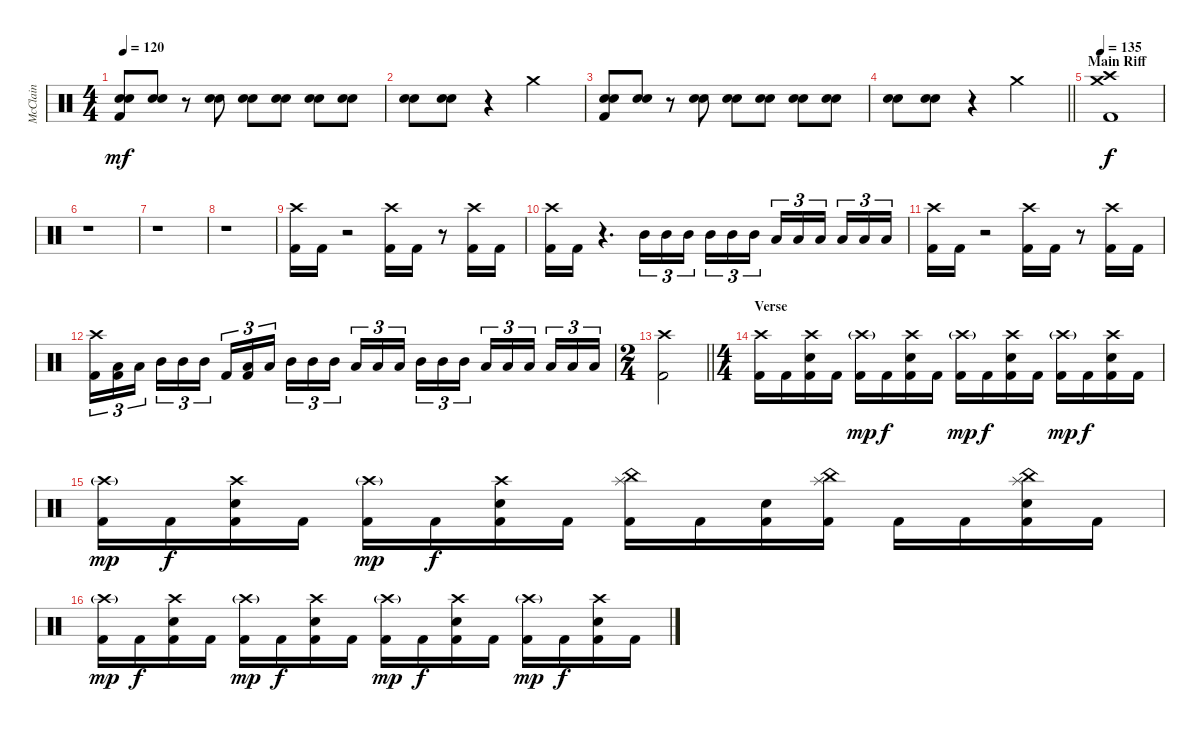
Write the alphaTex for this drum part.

\track ("McClain" "McClain") {instrument percussion}
\staff {score}
\articulation defaults
\ts (4 4)
\tempo 120
\clef neutral
\ks c
("Snare (hit) 2" "Electric Snare (hit)" "Kick (hit) 2").8{dy mf} ("Snare (hit) 2" "Electric Snare (hit)").8 r.8 ("Snare (hit) 2" "Electric Snare (hit)").8 ("Snare (hit) 2" "Electric Snare (hit)").8 ("Snare (hit) 2" "Electric Snare (hit)").8 ("Snare (hit) 2" "Electric Snare (hit)").8 ("Snare (hit) 2" "Electric Snare (hit)").8 |
("Snare (hit) 2" "Electric Snare (hit)").8 ("Snare (hit) 2" "Electric Snare (hit)").8 r.4 "Crash medium (hit)".2 |
("Snare (hit) 2" "Electric Snare (hit)" "Kick (hit) 2").8 ("Snare (hit) 2" "Electric Snare (hit)").8 r.8 ("Snare (hit) 2" "Electric Snare (hit)").8 ("Snare (hit) 2" "Electric Snare (hit)").8 ("Snare (hit) 2" "Electric Snare (hit)").8 ("Snare (hit) 2" "Electric Snare (hit)").8 ("Snare (hit) 2" "Electric Snare (hit)").8 |
\barLineRight lightlight
("Snare (hit) 2" "Electric Snare (hit)").8 ("Snare (hit) 2" "Electric Snare (hit)").8 r.4 "Crash medium (hit)".2 |
\section ("" "Main Riff")
\tempo 135
("Crash high (hit)" "Crash medium (hit)" "Kick (hit) 2").1{dy f} |
r.1 |
r.1 |
r.1 |
("Crash high (hit)" "Kick (hit) 2").16 "Kick (hit) 2".16 r.2 ("Crash high (hit)" "Kick (hit) 2").16 "Kick (hit) 2".16 r.8 ("Crash high (hit)" "Kick (hit) 2").16 "Kick (hit) 2".16 |
("Crash high (hit)" "Kick (hit) 2").16 "Kick (hit) 2".16 r.4{d} "Mid Tom (hit)".16{tu (3 2)} "Mid Tom (hit)".16{tu (3 2)} "Mid Tom (hit)".16{tu (3 2) beam splitsecondary} "Mid Tom (hit)".16{tu (3 2)} "Mid Tom (hit)".16{tu (3 2)} "Mid Tom (hit)".16{tu (3 2)} "Low Tom (hit)".16{tu (3 2)} "Low Tom (hit)".16{tu (3 2)} "Low Tom (hit)".16{tu (3 2) beam splitsecondary} "Low Tom (hit)".16{tu (3 2)} "Low Tom (hit)".16{tu (3 2)} "Low Tom (hit)".16{tu (3 2)} |
("Crash high (hit)" "Kick (hit) 2").16 "Kick (hit) 2".16 r.2 ("Crash high (hit)" "Kick (hit) 2").16 "Kick (hit) 2".16 r.8 ("Crash high (hit)" "Kick (hit) 2").16 "Kick (hit) 2".16 |
("Crash high (hit)" "Kick (hit) 2").16{tu (3 2)} ("Low Floor Tom (hit)" "Kick (hit) 2").16{tu (3 2)} "Low Floor Tom (hit)".16{tu (3 2) beam splitsecondary} "Mid Tom (hit)".16{tu (3 2)} "Mid Tom (hit)".16{tu (3 2)} "Mid Tom (hit)".16{tu (3 2)} "Kick (hit) 2".16{tu (3 2)} ("Low Floor Tom (hit)" "Kick (hit) 2").16{tu (3 2)} "Low Floor Tom (hit)".16{tu (3 2) beam splitsecondary} "Mid Tom (hit)".16{tu (3 2)} "Mid Tom (hit)".16{tu (3 2)} "Mid Tom (hit)".16{tu (3 2)} "Low Floor Tom (hit)".16{tu (3 2)} "Low Floor Tom (hit)".16{tu (3 2)} "Low Floor Tom (hit)".16{tu (3 2) beam splitsecondary} "Mid Tom (hit)".16{tu (3 2)} "Mid Tom (hit)".16{tu (3 2)} "Mid Tom (hit)".16{tu (3 2)} "Low Tom (hit)".16{tu (3 2)} "Low Tom (hit)".16{tu (3 2)} "Low Tom (hit)".16{tu (3 2) beam splitsecondary} "Low Floor Tom (hit)".16{tu (3 2)} "Low Floor Tom (hit)".16{tu (3 2)} "Low Floor Tom (hit)".16{tu (3 2)} |
\ts (2 4)
\barLineRight lightlight
("Crash high (hit)" "Kick (hit) 2").2 |
\ts (4 4)
\section ("" "Verse")
("Crash high (hit)" "Kick (hit) 2").16 "Kick (hit) 2".16 ("Crash high (hit)" "Electric Snare (hit)" "Kick (hit) 2").16 "Kick (hit) 2".16 ("Crash high (hit)"{g} "Kick (hit) 2").16{dy mp} "Kick (hit) 2".16{dy f} ("Crash high (hit)" "Electric Snare (hit)" "Kick (hit) 2").16 "Kick (hit) 2".16 ("Crash high (hit)"{g} "Kick (hit) 2").16{dy mp} "Kick (hit) 2".16{dy f} ("Crash high (hit)" "Electric Snare (hit)" "Kick (hit) 2").16 "Kick (hit) 2".16 ("Crash high (hit)"{g} "Kick (hit) 2").16{dy mp} "Kick (hit) 2".16{dy f} ("Crash high (hit)" "Electric Snare (hit)" "Kick (hit) 2").16 "Kick (hit) 2".16 |
("Crash high (hit)"{g} "Kick (hit) 2").16{dy mp} "Kick (hit) 2".16{dy f} ("Crash high (hit)" "Electric Snare (hit)" "Kick (hit) 2").16 "Kick (hit) 2".16 ("Crash high (hit)"{g} "Kick (hit) 2").16{dy mp} "Kick (hit) 2".16{dy f} ("Crash high (hit)" "Electric Snare (hit)" "Kick (hit) 2").16 "Kick (hit) 2".16 ("China (hit)" "Splash (hit)" "Kick (hit) 2").16 "Kick (hit) 2".16 ("Electric Snare (hit)" "Kick (hit) 2").16 ("China (hit)" "Splash (hit)" "Kick (hit) 2").16 "Kick (hit) 2".16 "Kick (hit) 2".16 ("China (hit)" "Splash (hit)" "Electric Snare (hit)" "Kick (hit) 2").16 "Kick (hit) 2".16 |
("Crash high (hit)"{g} "Kick (hit) 2").16{dy mp} "Kick (hit) 2".16{dy f} ("Crash high (hit)" "Electric Snare (hit)" "Kick (hit) 2").16 "Kick (hit) 2".16 ("Crash high (hit)"{g} "Kick (hit) 2").16{dy mp} "Kick (hit) 2".16{dy f} ("Crash high (hit)" "Electric Snare (hit)" "Kick (hit) 2").16 "Kick (hit) 2".16 ("Crash high (hit)"{g} "Kick (hit) 2").16{dy mp} "Kick (hit) 2".16{dy f} ("Crash high (hit)" "Electric Snare (hit)" "Kick (hit) 2").16 "Kick (hit) 2".16 ("Crash high (hit)"{g} "Kick (hit) 2").16{dy mp} "Kick (hit) 2".16{dy f} ("Crash high (hit)" "Electric Snare (hit)" "Kick (hit) 2").16 "Kick (hit) 2".16
